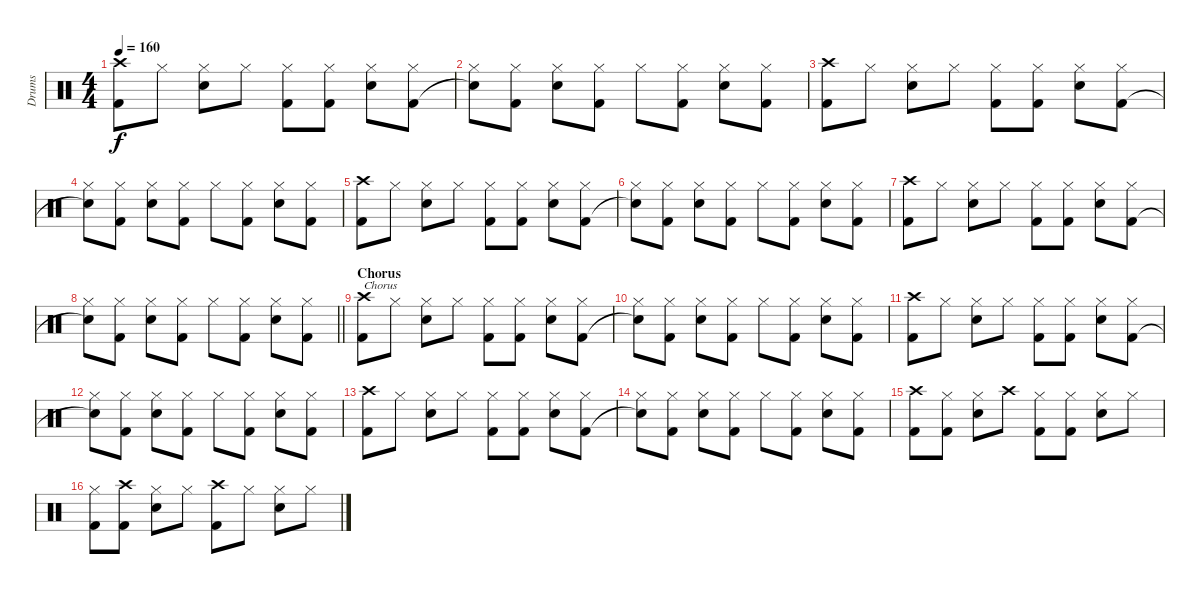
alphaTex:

\track ("Drums" "Drums") {instrument percussion}
\staff {score}
\articulation defaults
\ts (4 4)
\tempo 160
\clef neutral
\ks c
("Crash high (hit)" "Kick (hit) 2").8{dy f} "Hi-Hat (closed)".8 ("Hi-Hat (closed)" "Electric Snare (hit)").8 "Hi-Hat (closed)".8 ("Hi-Hat (closed)" "Kick (hit) 2").8 ("Hi-Hat (closed)" "Kick (hit) 2").8 ("Hi-Hat (closed)" "Electric Snare (hit)").8 ("Hi-Hat (closed)" "Kick (hit) 2").8 |
("Hi-Hat (closed)" "Snare (hit)"{t}).8 ("Hi-Hat (closed)" "Kick (hit) 2").8 ("Hi-Hat (closed)" "Electric Snare (hit)").8 ("Hi-Hat (closed)" "Kick (hit) 2").8 "Hi-Hat (closed)".8 ("Hi-Hat (closed)" "Kick (hit) 2").8 ("Hi-Hat (closed)" "Electric Snare (hit)").8 ("Hi-Hat (closed)" "Kick (hit) 2").8 |
("Crash high (hit)" "Kick (hit) 2").8 "Hi-Hat (closed)".8 ("Hi-Hat (closed)" "Electric Snare (hit)").8 "Hi-Hat (closed)".8 ("Hi-Hat (closed)" "Kick (hit) 2").8 ("Hi-Hat (closed)" "Kick (hit) 2").8 ("Hi-Hat (closed)" "Electric Snare (hit)").8 ("Hi-Hat (closed)" "Kick (hit) 2").8 |
("Hi-Hat (closed)" "Snare (hit)"{t}).8 ("Hi-Hat (closed)" "Kick (hit) 2").8 ("Hi-Hat (closed)" "Electric Snare (hit)").8 ("Hi-Hat (closed)" "Kick (hit) 2").8 "Hi-Hat (closed)".8 ("Hi-Hat (closed)" "Kick (hit) 2").8 ("Hi-Hat (closed)" "Electric Snare (hit)").8 ("Hi-Hat (closed)" "Kick (hit) 2").8 |
("Crash high (hit)" "Kick (hit) 2").8 "Hi-Hat (closed)".8 ("Hi-Hat (closed)" "Electric Snare (hit)").8 "Hi-Hat (closed)".8 ("Hi-Hat (closed)" "Kick (hit) 2").8 ("Hi-Hat (closed)" "Kick (hit) 2").8 ("Hi-Hat (closed)" "Electric Snare (hit)").8 ("Hi-Hat (closed)" "Kick (hit) 2").8 |
("Hi-Hat (closed)" "Snare (hit)"{t}).8 ("Hi-Hat (closed)" "Kick (hit) 2").8 ("Hi-Hat (closed)" "Electric Snare (hit)").8 ("Hi-Hat (closed)" "Kick (hit) 2").8 "Hi-Hat (closed)".8 ("Hi-Hat (closed)" "Kick (hit) 2").8 ("Hi-Hat (closed)" "Electric Snare (hit)").8 ("Hi-Hat (closed)" "Kick (hit) 2").8 |
("Crash high (hit)" "Kick (hit) 2").8 "Hi-Hat (closed)".8 ("Hi-Hat (closed)" "Electric Snare (hit)").8 "Hi-Hat (closed)".8 ("Hi-Hat (closed)" "Kick (hit) 2").8 ("Hi-Hat (closed)" "Kick (hit) 2").8 ("Hi-Hat (closed)" "Electric Snare (hit)").8 ("Hi-Hat (closed)" "Kick (hit) 2").8 |
\barLineRight lightlight
("Hi-Hat (closed)" "Snare (hit)"{t}).8 ("Hi-Hat (closed)" "Kick (hit) 2").8 ("Hi-Hat (closed)" "Electric Snare (hit)").8 ("Hi-Hat (closed)" "Kick (hit) 2").8 "Hi-Hat (closed)".8 ("Hi-Hat (closed)" "Kick (hit) 2").8 ("Hi-Hat (closed)" "Electric Snare (hit)").8 ("Hi-Hat (closed)" "Kick (hit) 2").8 |
\section ("" "Chorus")
("Crash high (hit)" "Kick (hit) 2").8{txt "Chorus"} "Hi-Hat (closed)".8 ("Hi-Hat (closed)" "Electric Snare (hit)").8 "Hi-Hat (closed)".8 ("Hi-Hat (closed)" "Kick (hit) 2").8 ("Hi-Hat (closed)" "Kick (hit) 2").8 ("Hi-Hat (closed)" "Electric Snare (hit)").8 ("Hi-Hat (closed)" "Kick (hit) 2").8 |
("Hi-Hat (closed)" "Snare (hit)"{t}).8 ("Hi-Hat (closed)" "Kick (hit) 2").8 ("Hi-Hat (closed)" "Electric Snare (hit)").8 ("Hi-Hat (closed)" "Kick (hit) 2").8 "Hi-Hat (closed)".8 ("Hi-Hat (closed)" "Kick (hit) 2").8 ("Hi-Hat (closed)" "Electric Snare (hit)").8 ("Hi-Hat (closed)" "Kick (hit) 2").8 |
("Crash high (hit)" "Kick (hit) 2").8 "Hi-Hat (closed)".8 ("Hi-Hat (closed)" "Electric Snare (hit)").8 "Hi-Hat (closed)".8 ("Hi-Hat (closed)" "Kick (hit) 2").8 ("Hi-Hat (closed)" "Kick (hit) 2").8 ("Hi-Hat (closed)" "Electric Snare (hit)").8 ("Hi-Hat (closed)" "Kick (hit) 2").8 |
("Hi-Hat (closed)" "Snare (hit)"{t}).8 ("Hi-Hat (closed)" "Kick (hit) 2").8 ("Hi-Hat (closed)" "Electric Snare (hit)").8 ("Hi-Hat (closed)" "Kick (hit) 2").8 "Hi-Hat (closed)".8 ("Hi-Hat (closed)" "Kick (hit) 2").8 ("Hi-Hat (closed)" "Electric Snare (hit)").8 ("Hi-Hat (closed)" "Kick (hit) 2").8 |
("Crash high (hit)" "Kick (hit) 2").8 "Hi-Hat (closed)".8 ("Hi-Hat (closed)" "Electric Snare (hit)").8 "Hi-Hat (closed)".8 ("Hi-Hat (closed)" "Kick (hit) 2").8 ("Hi-Hat (closed)" "Kick (hit) 2").8 ("Hi-Hat (closed)" "Electric Snare (hit)").8 ("Hi-Hat (closed)" "Kick (hit) 2").8 |
("Hi-Hat (closed)" "Snare (hit)"{t}).8 ("Hi-Hat (closed)" "Kick (hit) 2").8 ("Hi-Hat (closed)" "Electric Snare (hit)").8 ("Hi-Hat (closed)" "Kick (hit) 2").8 "Hi-Hat (closed)".8 ("Hi-Hat (closed)" "Kick (hit) 2").8 ("Hi-Hat (closed)" "Electric Snare (hit)").8 ("Hi-Hat (closed)" "Kick (hit) 2").8 |
("Crash high (hit)" "Kick (hit) 2").8 ("Hi-Hat (closed)" "Kick (hit) 2").8 ("Hi-Hat (closed)" "Electric Snare (hit)").8 "Crash high (hit)".8 ("Hi-Hat (closed)" "Kick (hit) 2").8 ("Hi-Hat (closed)" "Kick (hit) 2").8 ("Hi-Hat (closed)" "Electric Snare (hit)").8 "Hi-Hat (closed)".8 |
("Hi-Hat (closed)" "Kick (hit) 2").8 ("Crash high (hit)" "Kick (hit) 2").8 ("Hi-Hat (closed)" "Electric Snare (hit)").8 "Hi-Hat (closed)".8 ("Crash high (hit)" "Kick (hit) 2").8 "Hi-Hat (closed)".8 ("Hi-Hat (closed)" "Electric Snare (hit)").8 "Hi-Hat (closed)".8
